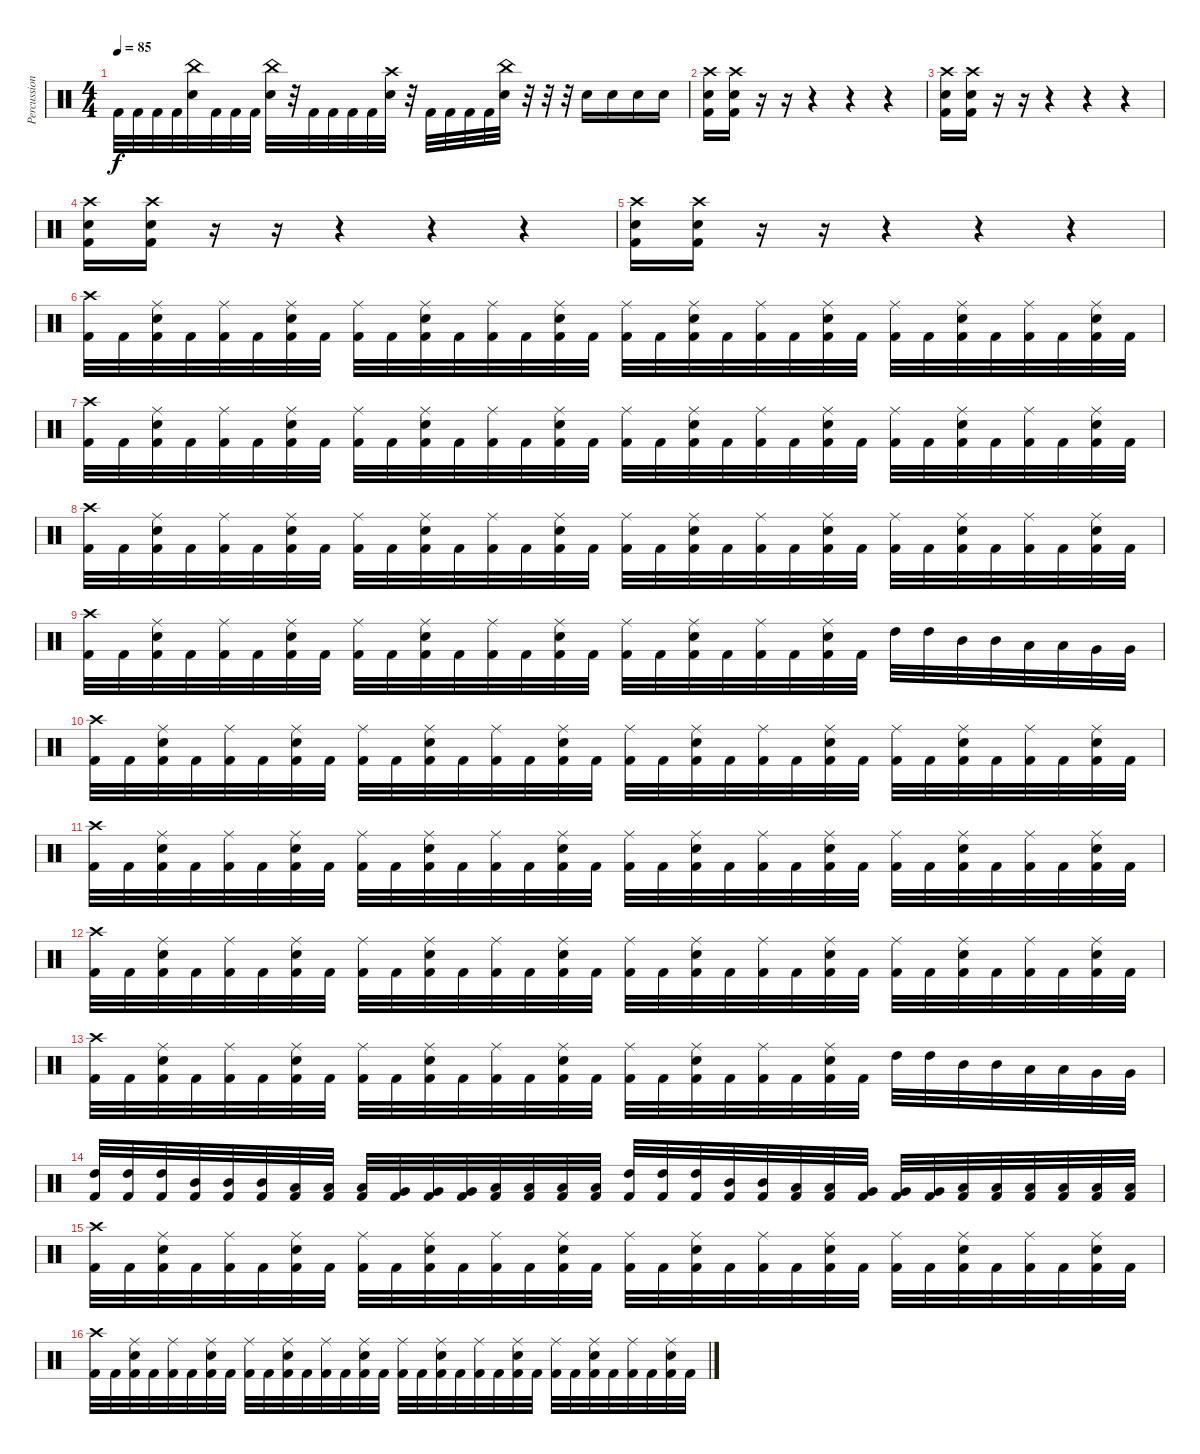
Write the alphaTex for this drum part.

\track ("Percussions" "Percussion") {instrument percussion}
\staff {score}
\articulation defaults
\ts (4 4)
\tempo 85
\clef neutral
\ks c "Kick (hit) 2".32{dy f} "Kick (hit) 2".32 "Kick (hit) 2".32 "Kick (hit) 2".32
("China (hit)" "Snare (hit) 2").32 "Kick (hit) 2".32 "Kick (hit) 2".32 "Kick (hit) 2".32 ("China (hit)" "Snare (hit) 2").32 r.32 "Kick (hit) 2".32 "Kick (hit) 2".32 "Kick (hit) 2".32 "Kick (hit) 2".32 ("Crash high (hit)" "Snare (hit) 2").32 r.32 "Kick (hit) 2".32 "Kick (hit) 2".32 "Kick (hit) 2".32 "Kick (hit) 2".32 ("China (hit)" "Snare (hit) 2").32 r.32 r.32 r.32 "Snare (hit) 2".16 "Snare (hit) 2".16 "Snare (hit) 2".16 "Snare (hit) 2".16 |
("Crash high (hit)" "Snare (hit) 2" "Kick (hit) 2").16 ("Crash high (hit)" "Snare (hit) 2" "Kick (hit) 2").16 r.16 r.16 r.4 r.4 r.4 |
("Crash high (hit)" "Snare (hit) 2" "Kick (hit) 2").16 ("Crash high (hit)" "Snare (hit) 2" "Kick (hit) 2").16 r.16 r.16 r.4 r.4 r.4 |
("Crash high (hit)" "Snare (hit) 2" "Kick (hit) 2").16 ("Crash high (hit)" "Snare (hit) 2" "Kick (hit) 2").16 r.16 r.16 r.4 r.4 r.4 |
("Crash high (hit)" "Snare (hit) 2" "Kick (hit) 2").16 ("Crash high (hit)" "Snare (hit) 2" "Kick (hit) 2").16 r.16 r.16 r.4 r.4 r.4 |
("Crash high (hit)" "Kick (hit) 2").32 "Kick (hit) 2".32 ("Ride (middle)" "Snare (hit) 2" "Kick (hit) 2").32 "Kick (hit) 2".32 ("Ride (middle)" "Kick (hit) 2").32 "Kick (hit) 2".32 ("Ride (middle)" "Snare (hit) 2" "Kick (hit) 2").32 "Kick (hit) 2".32 ("Ride (middle)" "Kick (hit) 2").32 "Kick (hit) 2".32 ("Ride (middle)" "Snare (hit) 2" "Kick (hit) 2").32 "Kick (hit) 2".32 ("Ride (middle)" "Kick (hit) 2").32 "Kick (hit) 2".32 ("Ride (middle)" "Snare (hit) 2" "Kick (hit) 2").32 "Kick (hit) 2".32 ("Ride (middle)" "Kick (hit) 2").32 "Kick (hit) 2".32 ("Ride (middle)" "Snare (hit) 2" "Kick (hit) 2").32 "Kick (hit) 2".32 ("Ride (middle)" "Kick (hit) 2").32 "Kick (hit) 2".32 ("Ride (middle)" "Snare (hit) 2" "Kick (hit) 2").32 "Kick (hit) 2".32 ("Ride (middle)" "Kick (hit) 2").32 "Kick (hit) 2".32 ("Ride (middle)" "Snare (hit) 2" "Kick (hit) 2").32 "Kick (hit) 2".32 ("Ride (middle)" "Kick (hit) 2").32 "Kick (hit) 2".32 ("Ride (middle)" "Snare (hit) 2" "Kick (hit) 2").32 "Kick (hit) 2".32 |
("Crash high (hit)" "Kick (hit) 2").32 "Kick (hit) 2".32 ("Ride (middle)" "Snare (hit) 2" "Kick (hit) 2").32 "Kick (hit) 2".32 ("Ride (middle)" "Kick (hit) 2").32 "Kick (hit) 2".32 ("Ride (middle)" "Snare (hit) 2" "Kick (hit) 2").32 "Kick (hit) 2".32 ("Ride (middle)" "Kick (hit) 2").32 "Kick (hit) 2".32 ("Ride (middle)" "Snare (hit) 2" "Kick (hit) 2").32 "Kick (hit) 2".32 ("Ride (middle)" "Kick (hit) 2").32 "Kick (hit) 2".32 ("Ride (middle)" "Snare (hit) 2" "Kick (hit) 2").32 "Kick (hit) 2".32 ("Ride (middle)" "Kick (hit) 2").32 "Kick (hit) 2".32 ("Ride (middle)" "Snare (hit) 2" "Kick (hit) 2").32 "Kick (hit) 2".32 ("Ride (middle)" "Kick (hit) 2").32 "Kick (hit) 2".32 ("Ride (middle)" "Snare (hit) 2" "Kick (hit) 2").32 "Kick (hit) 2".32 ("Ride (middle)" "Kick (hit) 2").32 "Kick (hit) 2".32 ("Ride (middle)" "Snare (hit) 2" "Kick (hit) 2").32 "Kick (hit) 2".32 ("Ride (middle)" "Kick (hit) 2").32 "Kick (hit) 2".32 ("Ride (middle)" "Snare (hit) 2" "Kick (hit) 2").32 "Kick (hit) 2".32 |
("Crash high (hit)" "Kick (hit) 2").32 "Kick (hit) 2".32 ("Ride (middle)" "Snare (hit) 2" "Kick (hit) 2").32 "Kick (hit) 2".32 ("Ride (middle)" "Kick (hit) 2").32 "Kick (hit) 2".32 ("Ride (middle)" "Snare (hit) 2" "Kick (hit) 2").32 "Kick (hit) 2".32 ("Ride (middle)" "Kick (hit) 2").32 "Kick (hit) 2".32 ("Ride (middle)" "Snare (hit) 2" "Kick (hit) 2").32 "Kick (hit) 2".32 ("Ride (middle)" "Kick (hit) 2").32 "Kick (hit) 2".32 ("Ride (middle)" "Snare (hit) 2" "Kick (hit) 2").32 "Kick (hit) 2".32 ("Ride (middle)" "Kick (hit) 2").32 "Kick (hit) 2".32 ("Ride (middle)" "Snare (hit) 2" "Kick (hit) 2").32 "Kick (hit) 2".32 ("Ride (middle)" "Kick (hit) 2").32 "Kick (hit) 2".32 ("Ride (middle)" "Snare (hit) 2" "Kick (hit) 2").32 "Kick (hit) 2".32 ("Ride (middle)" "Kick (hit) 2").32 "Kick (hit) 2".32 ("Ride (middle)" "Snare (hit) 2" "Kick (hit) 2").32 "Kick (hit) 2".32 ("Ride (middle)" "Kick (hit) 2").32 "Kick (hit) 2".32 ("Ride (middle)" "Snare (hit) 2" "Kick (hit) 2").32 "Kick (hit) 2".32 |
("Crash high (hit)" "Kick (hit) 2").32 "Kick (hit) 2".32 ("Ride (middle)" "Snare (hit) 2" "Kick (hit) 2").32 "Kick (hit) 2".32 ("Ride (middle)" "Kick (hit) 2").32 "Kick (hit) 2".32 ("Ride (middle)" "Snare (hit) 2" "Kick (hit) 2").32 "Kick (hit) 2".32 ("Ride (middle)" "Kick (hit) 2").32 "Kick (hit) 2".32 ("Ride (middle)" "Snare (hit) 2" "Kick (hit) 2").32 "Kick (hit) 2".32 ("Ride (middle)" "Kick (hit) 2").32 "Kick (hit) 2".32 ("Ride (middle)" "Snare (hit) 2" "Kick (hit) 2").32 "Kick (hit) 2".32 ("Ride (middle)" "Kick (hit) 2").32 "Kick (hit) 2".32 ("Ride (middle)" "Snare (hit) 2" "Kick (hit) 2").32 "Kick (hit) 2".32 ("Ride (middle)" "Kick (hit) 2").32 "Kick (hit) 2".32 ("Ride (middle)" "Snare (hit) 2" "Kick (hit) 2").32 "Kick (hit) 2".32 "High Tom (hit)".32 "High Tom (hit)".32 "Mid Tom (hit)".32 "Mid Tom (hit)".32 "Low Tom (hit)".32 "Low Tom (hit)".32 "Very Low Tom (hit)".32 "Very Low Tom (hit)".32 |
("Crash high (hit)" "Kick (hit) 2").32 "Kick (hit) 2".32 ("Ride (middle)" "Snare (hit) 2" "Kick (hit) 2").32 "Kick (hit) 2".32 ("Ride (middle)" "Kick (hit) 2").32 "Kick (hit) 2".32 ("Ride (middle)" "Snare (hit) 2" "Kick (hit) 2").32 "Kick (hit) 2".32 ("Ride (middle)" "Kick (hit) 2").32 "Kick (hit) 2".32 ("Ride (middle)" "Snare (hit) 2" "Kick (hit) 2").32 "Kick (hit) 2".32 ("Ride (middle)" "Kick (hit) 2").32 "Kick (hit) 2".32 ("Ride (middle)" "Snare (hit) 2" "Kick (hit) 2").32 "Kick (hit) 2".32 ("Ride (middle)" "Kick (hit) 2").32 "Kick (hit) 2".32 ("Ride (middle)" "Snare (hit) 2" "Kick (hit) 2").32 "Kick (hit) 2".32 ("Ride (middle)" "Kick (hit) 2").32 "Kick (hit) 2".32 ("Ride (middle)" "Snare (hit) 2" "Kick (hit) 2").32 "Kick (hit) 2".32 ("Ride (middle)" "Kick (hit) 2").32 "Kick (hit) 2".32 ("Ride (middle)" "Snare (hit) 2" "Kick (hit) 2").32 "Kick (hit) 2".32 ("Ride (middle)" "Kick (hit) 2").32 "Kick (hit) 2".32 ("Ride (middle)" "Snare (hit) 2" "Kick (hit) 2").32 "Kick (hit) 2".32 |
("Crash high (hit)" "Kick (hit) 2").32 "Kick (hit) 2".32 ("Ride (middle)" "Snare (hit) 2" "Kick (hit) 2").32 "Kick (hit) 2".32 ("Ride (middle)" "Kick (hit) 2").32 "Kick (hit) 2".32 ("Ride (middle)" "Snare (hit) 2" "Kick (hit) 2").32 "Kick (hit) 2".32 ("Ride (middle)" "Kick (hit) 2").32 "Kick (hit) 2".32 ("Ride (middle)" "Snare (hit) 2" "Kick (hit) 2").32 "Kick (hit) 2".32 ("Ride (middle)" "Kick (hit) 2").32 "Kick (hit) 2".32 ("Ride (middle)" "Snare (hit) 2" "Kick (hit) 2").32 "Kick (hit) 2".32 ("Ride (middle)" "Kick (hit) 2").32 "Kick (hit) 2".32 ("Ride (middle)" "Snare (hit) 2" "Kick (hit) 2").32 "Kick (hit) 2".32 ("Ride (middle)" "Kick (hit) 2").32 "Kick (hit) 2".32 ("Ride (middle)" "Snare (hit) 2" "Kick (hit) 2").32 "Kick (hit) 2".32 ("Ride (middle)" "Kick (hit) 2").32 "Kick (hit) 2".32 ("Ride (middle)" "Snare (hit) 2" "Kick (hit) 2").32 "Kick (hit) 2".32 ("Ride (middle)" "Kick (hit) 2").32 "Kick (hit) 2".32 ("Ride (middle)" "Snare (hit) 2" "Kick (hit) 2").32 "Kick (hit) 2".32 |
("Crash high (hit)" "Kick (hit) 2").32 "Kick (hit) 2".32 ("Ride (middle)" "Snare (hit) 2" "Kick (hit) 2").32 "Kick (hit) 2".32 ("Ride (middle)" "Kick (hit) 2").32 "Kick (hit) 2".32 ("Ride (middle)" "Snare (hit) 2" "Kick (hit) 2").32 "Kick (hit) 2".32 ("Ride (middle)" "Kick (hit) 2").32 "Kick (hit) 2".32 ("Ride (middle)" "Snare (hit) 2" "Kick (hit) 2").32 "Kick (hit) 2".32 ("Ride (middle)" "Kick (hit) 2").32 "Kick (hit) 2".32 ("Ride (middle)" "Snare (hit) 2" "Kick (hit) 2").32 "Kick (hit) 2".32 ("Ride (middle)" "Kick (hit) 2").32 "Kick (hit) 2".32 ("Ride (middle)" "Snare (hit) 2" "Kick (hit) 2").32 "Kick (hit) 2".32 ("Ride (middle)" "Kick (hit) 2").32 "Kick (hit) 2".32 ("Ride (middle)" "Snare (hit) 2" "Kick (hit) 2").32 "Kick (hit) 2".32 ("Ride (middle)" "Kick (hit) 2").32 "Kick (hit) 2".32 ("Ride (middle)" "Snare (hit) 2" "Kick (hit) 2").32 "Kick (hit) 2".32 ("Ride (middle)" "Kick (hit) 2").32 "Kick (hit) 2".32 ("Ride (middle)" "Snare (hit) 2" "Kick (hit) 2").32 "Kick (hit) 2".32 |
("Crash high (hit)" "Kick (hit) 2").32 "Kick (hit) 2".32 ("Ride (middle)" "Snare (hit) 2" "Kick (hit) 2").32 "Kick (hit) 2".32 ("Ride (middle)" "Kick (hit) 2").32 "Kick (hit) 2".32 ("Ride (middle)" "Snare (hit) 2" "Kick (hit) 2").32 "Kick (hit) 2".32 ("Ride (middle)" "Kick (hit) 2").32 "Kick (hit) 2".32 ("Ride (middle)" "Snare (hit) 2" "Kick (hit) 2").32 "Kick (hit) 2".32 ("Ride (middle)" "Kick (hit) 2").32 "Kick (hit) 2".32 ("Ride (middle)" "Snare (hit) 2" "Kick (hit) 2").32 "Kick (hit) 2".32 ("Ride (middle)" "Kick (hit) 2").32 "Kick (hit) 2".32 ("Ride (middle)" "Snare (hit) 2" "Kick (hit) 2").32 "Kick (hit) 2".32 ("Ride (middle)" "Kick (hit) 2").32 "Kick (hit) 2".32 ("Ride (middle)" "Snare (hit) 2" "Kick (hit) 2").32 "Kick (hit) 2".32 "High Tom (hit)".32 "High Tom (hit)".32 "Mid Tom (hit)".32 "Mid Tom (hit)".32 "Low Tom (hit)".32 "Low Tom (hit)".32 "Very Low Tom (hit)".32 "Very Low Tom (hit)".32 |
("High Tom (hit)" "Kick (hit) 2").32 ("High Tom (hit)" "Kick (hit) 2").32 ("High Tom (hit)" "Kick (hit) 2").32 ("Mid Tom (hit)" "Kick (hit) 2").32 ("Mid Tom (hit)" "Kick (hit) 2").32 ("Mid Tom (hit)" "Kick (hit) 2").32 ("Low Tom (hit)" "Kick (hit) 2").32 ("Low Tom (hit)" "Kick (hit) 2").32 ("Low Tom (hit)" "Kick (hit) 2").32 ("Very Low Tom (hit)" "Kick (hit) 2").32 ("Very Low Tom (hit)" "Kick (hit) 2").32 ("Very Low Tom (hit)" "Kick (hit) 2").32 ("Low Floor Tom (hit)" "Kick (hit) 2").32 ("Low Floor Tom (hit)" "Kick (hit) 2").32 ("Low Floor Tom (hit)" "Kick (hit) 2").32 ("Low Floor Tom (hit)" "Kick (hit) 2").32 ("High Tom (hit)" "Kick (hit) 2").32 ("High Tom (hit)" "Kick (hit) 2").32 ("High Tom (hit)" "Kick (hit) 2").32 ("Mid Tom (hit)" "Kick (hit) 2").32 ("Mid Tom (hit)" "Kick (hit) 2").32 ("Low Tom (hit)" "Kick (hit) 2").32 ("Low Tom (hit)" "Kick (hit) 2").32 ("Very Low Tom (hit)" "Kick (hit) 2").32 ("Very Low Tom (hit)" "Kick (hit) 2").32 ("Very Low Tom (hit)" "Kick (hit) 2").32 ("Low Floor Tom (hit)" "Kick (hit) 2").32 ("Low Floor Tom (hit)" "Kick (hit) 2").32 ("Low Floor Tom (hit)" "Kick (hit) 2").32 ("Low Floor Tom (hit)" "Kick (hit) 2").32 ("Low Floor Tom (hit)" "Kick (hit) 2").32 ("Low Floor Tom (hit)" "Kick (hit) 2").32 |
("Crash high (hit)" "Kick (hit) 2").32 "Kick (hit) 2".32 ("Ride (middle)" "Snare (hit) 2" "Kick (hit) 2").32 "Kick (hit) 2".32 ("Ride (middle)" "Kick (hit) 2").32 "Kick (hit) 2".32 ("Ride (middle)" "Snare (hit) 2" "Kick (hit) 2").32 "Kick (hit) 2".32 ("Ride (middle)" "Kick (hit) 2").32 "Kick (hit) 2".32 ("Ride (middle)" "Snare (hit) 2" "Kick (hit) 2").32 "Kick (hit) 2".32 ("Ride (middle)" "Kick (hit) 2").32 "Kick (hit) 2".32 ("Ride (middle)" "Snare (hit) 2" "Kick (hit) 2").32 "Kick (hit) 2".32 ("Ride (middle)" "Kick (hit) 2").32 "Kick (hit) 2".32 ("Ride (middle)" "Snare (hit) 2" "Kick (hit) 2").32 "Kick (hit) 2".32 ("Ride (middle)" "Kick (hit) 2").32 "Kick (hit) 2".32 ("Ride (middle)" "Snare (hit) 2" "Kick (hit) 2").32 "Kick (hit) 2".32 ("Ride (middle)" "Kick (hit) 2").32 "Kick (hit) 2".32 ("Ride (middle)" "Snare (hit) 2" "Kick (hit) 2").32 "Kick (hit) 2".32 ("Ride (middle)" "Kick (hit) 2").32 "Kick (hit) 2".32 ("Ride (middle)" "Snare (hit) 2" "Kick (hit) 2").32 "Kick (hit) 2".32 |
("Crash high (hit)" "Kick (hit) 2").32 "Kick (hit) 2".32 ("Ride (middle)" "Snare (hit) 2" "Kick (hit) 2").32 "Kick (hit) 2".32 ("Ride (middle)" "Kick (hit) 2").32 "Kick (hit) 2".32 ("Ride (middle)" "Snare (hit) 2" "Kick (hit) 2").32 "Kick (hit) 2".32 ("Ride (middle)" "Kick (hit) 2").32 "Kick (hit) 2".32 ("Ride (middle)" "Snare (hit) 2" "Kick (hit) 2").32 "Kick (hit) 2".32 ("Ride (middle)" "Kick (hit) 2").32 "Kick (hit) 2".32 ("Ride (middle)" "Snare (hit) 2" "Kick (hit) 2").32 "Kick (hit) 2".32 ("Ride (middle)" "Kick (hit) 2").32 "Kick (hit) 2".32 ("Ride (middle)" "Snare (hit) 2" "Kick (hit) 2").32 "Kick (hit) 2".32 ("Ride (middle)" "Kick (hit) 2").32 "Kick (hit) 2".32 ("Ride (middle)" "Snare (hit) 2" "Kick (hit) 2").32 "Kick (hit) 2".32 ("Ride (middle)" "Kick (hit) 2").32 "Kick (hit) 2".32 ("Ride (middle)" "Snare (hit) 2" "Kick (hit) 2").32 "Kick (hit) 2".32 ("Ride (middle)" "Kick (hit) 2").32 "Kick (hit) 2".32 ("Ride (middle)" "Snare (hit) 2" "Kick (hit) 2").32 "Kick (hit) 2".32
